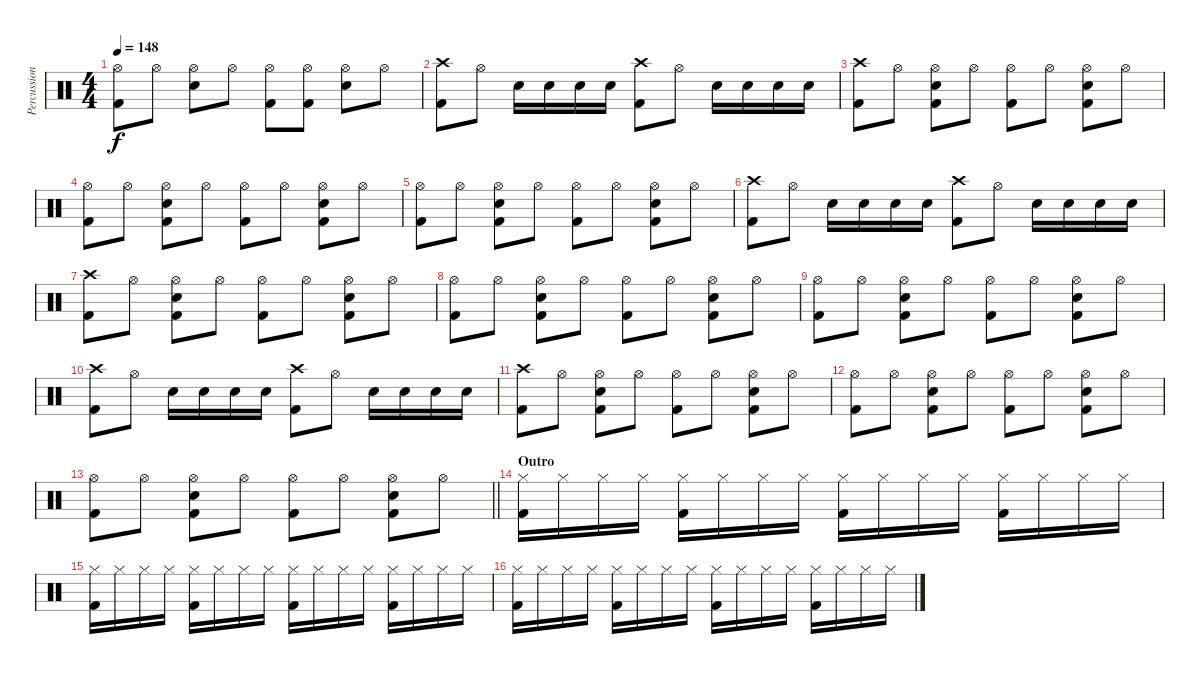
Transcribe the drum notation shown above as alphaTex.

\track ("Percussion" "Percussion") {instrument percussion}
\staff {score}
\articulation defaults
\ts (4 4)
\tempo 148
\clef neutral
\ks c
("Hi-Hat (open)" "Kick (hit) 2").8{dy f} "Hi-Hat (open)".8 ("Hi-Hat (open)" "Electric Snare (hit)").8 "Hi-Hat (open)".8 ("Hi-Hat (open)" "Kick (hit) 2").8 ("Hi-Hat (open)" "Kick (hit) 2").8 ("Hi-Hat (open)" "Electric Snare (hit)").8 "Hi-Hat (open)".8 |
("Crash high (hit)" "Kick (hit) 2").8 "Hi-Hat (open)".8 "Electric Snare (hit)".16 "Electric Snare (hit)".16 "Electric Snare (hit)".16 "Electric Snare (hit)".16 ("Crash high (hit)" "Kick (hit) 2").8 "Hi-Hat (open)".8 "Electric Snare (hit)".16 "Electric Snare (hit)".16 "Electric Snare (hit)".16 "Electric Snare (hit)".16 |
("Crash high (hit)" "Kick (hit) 2").8 "Hi-Hat (open)".8 ("Hi-Hat (open)" "Electric Snare (hit)" "Kick (hit) 2").8 "Hi-Hat (open)".8 ("Hi-Hat (open)" "Kick (hit) 2").8 "Hi-Hat (open)".8 ("Hi-Hat (open)" "Electric Snare (hit)" "Kick (hit) 2").8 "Hi-Hat (open)".8 |
("Hi-Hat (open)" "Kick (hit) 2").8 "Hi-Hat (open)".8 ("Hi-Hat (open)" "Electric Snare (hit)" "Kick (hit) 2").8 "Hi-Hat (open)".8 ("Hi-Hat (open)" "Kick (hit) 2").8 "Hi-Hat (open)".8 ("Hi-Hat (open)" "Electric Snare (hit)" "Kick (hit) 2").8 "Hi-Hat (open)".8 |
("Hi-Hat (open)" "Kick (hit) 2").8 "Hi-Hat (open)".8 ("Hi-Hat (open)" "Electric Snare (hit)" "Kick (hit) 2").8 "Hi-Hat (open)".8 ("Hi-Hat (open)" "Kick (hit) 2").8 "Hi-Hat (open)".8 ("Hi-Hat (open)" "Electric Snare (hit)" "Kick (hit) 2").8 "Hi-Hat (open)".8 |
("Crash high (hit)" "Kick (hit) 2").8 "Hi-Hat (open)".8 "Electric Snare (hit)".16 "Electric Snare (hit)".16 "Electric Snare (hit)".16 "Electric Snare (hit)".16 ("Crash high (hit)" "Kick (hit) 2").8 "Hi-Hat (open)".8 "Electric Snare (hit)".16 "Electric Snare (hit)".16 "Electric Snare (hit)".16 "Electric Snare (hit)".16 |
("Crash high (hit)" "Kick (hit) 2").8 "Hi-Hat (open)".8 ("Hi-Hat (open)" "Electric Snare (hit)" "Kick (hit) 2").8 "Hi-Hat (open)".8 ("Hi-Hat (open)" "Kick (hit) 2").8 "Hi-Hat (open)".8 ("Hi-Hat (open)" "Electric Snare (hit)" "Kick (hit) 2").8 "Hi-Hat (open)".8 |
("Hi-Hat (open)" "Kick (hit) 2").8 "Hi-Hat (open)".8 ("Hi-Hat (open)" "Electric Snare (hit)" "Kick (hit) 2").8 "Hi-Hat (open)".8 ("Hi-Hat (open)" "Kick (hit) 2").8 "Hi-Hat (open)".8 ("Hi-Hat (open)" "Electric Snare (hit)" "Kick (hit) 2").8 "Hi-Hat (open)".8 |
("Hi-Hat (open)" "Kick (hit) 2").8 "Hi-Hat (open)".8 ("Hi-Hat (open)" "Electric Snare (hit)" "Kick (hit) 2").8 "Hi-Hat (open)".8 ("Hi-Hat (open)" "Kick (hit) 2").8 "Hi-Hat (open)".8 ("Hi-Hat (open)" "Electric Snare (hit)" "Kick (hit) 2").8 "Hi-Hat (open)".8 |
("Crash high (hit)" "Kick (hit) 2").8 "Hi-Hat (open)".8 "Electric Snare (hit)".16 "Electric Snare (hit)".16 "Electric Snare (hit)".16 "Electric Snare (hit)".16 ("Crash high (hit)" "Kick (hit) 2").8 "Hi-Hat (open)".8 "Electric Snare (hit)".16 "Electric Snare (hit)".16 "Electric Snare (hit)".16 "Electric Snare (hit)".16 |
("Crash high (hit)" "Kick (hit) 2").8 "Hi-Hat (open)".8 ("Hi-Hat (open)" "Electric Snare (hit)" "Kick (hit) 2").8 "Hi-Hat (open)".8 ("Hi-Hat (open)" "Kick (hit) 2").8 "Hi-Hat (open)".8 ("Hi-Hat (open)" "Electric Snare (hit)" "Kick (hit) 2").8 "Hi-Hat (open)".8 |
("Hi-Hat (open)" "Kick (hit) 2").8 "Hi-Hat (open)".8 ("Hi-Hat (open)" "Electric Snare (hit)" "Kick (hit) 2").8 "Hi-Hat (open)".8 ("Hi-Hat (open)" "Kick (hit) 2").8 "Hi-Hat (open)".8 ("Hi-Hat (open)" "Electric Snare (hit)" "Kick (hit) 2").8 "Hi-Hat (open)".8 |
\barLineRight lightlight
("Hi-Hat (open)" "Kick (hit) 2").8 "Hi-Hat (open)".8 ("Hi-Hat (open)" "Electric Snare (hit)" "Kick (hit) 2").8 "Hi-Hat (open)".8 ("Hi-Hat (open)" "Kick (hit) 2").8 "Hi-Hat (open)".8 ("Hi-Hat (open)" "Electric Snare (hit)" "Kick (hit) 2").8 "Hi-Hat (open)".8 |
\section ("" "Outro")
("Hi-Hat (closed)" "Kick (hit) 2").16 "Hi-Hat (closed)".16 "Hi-Hat (closed)".16 "Hi-Hat (closed)".16 ("Hi-Hat (closed)" "Kick (hit) 2").16 "Hi-Hat (closed)".16 "Hi-Hat (closed)".16 "Hi-Hat (closed)".16 ("Hi-Hat (closed)" "Kick (hit) 2").16 "Hi-Hat (closed)".16 "Hi-Hat (closed)".16 "Hi-Hat (closed)".16 ("Hi-Hat (closed)" "Kick (hit) 2").16 "Hi-Hat (closed)".16 "Hi-Hat (closed)".16 "Hi-Hat (closed)".16 |
("Hi-Hat (closed)" "Kick (hit) 2").16 "Hi-Hat (closed)".16 "Hi-Hat (closed)".16 "Hi-Hat (closed)".16 ("Hi-Hat (closed)" "Kick (hit) 2").16 "Hi-Hat (closed)".16 "Hi-Hat (closed)".16 "Hi-Hat (closed)".16 ("Hi-Hat (closed)" "Kick (hit) 2").16 "Hi-Hat (closed)".16 "Hi-Hat (closed)".16 "Hi-Hat (closed)".16 ("Hi-Hat (closed)" "Kick (hit) 2").16 "Hi-Hat (closed)".16 "Hi-Hat (closed)".16 "Hi-Hat (closed)".16 |
("Hi-Hat (closed)" "Kick (hit) 2").16 "Hi-Hat (closed)".16 "Hi-Hat (closed)".16 "Hi-Hat (closed)".16 ("Hi-Hat (closed)" "Kick (hit) 2").16 "Hi-Hat (closed)".16 "Hi-Hat (closed)".16 "Hi-Hat (closed)".16 ("Hi-Hat (closed)" "Kick (hit) 2").16 "Hi-Hat (closed)".16 "Hi-Hat (closed)".16 "Hi-Hat (closed)".16 ("Hi-Hat (closed)" "Kick (hit) 2").16 "Hi-Hat (closed)".16 "Hi-Hat (closed)".16 "Hi-Hat (closed)".16
